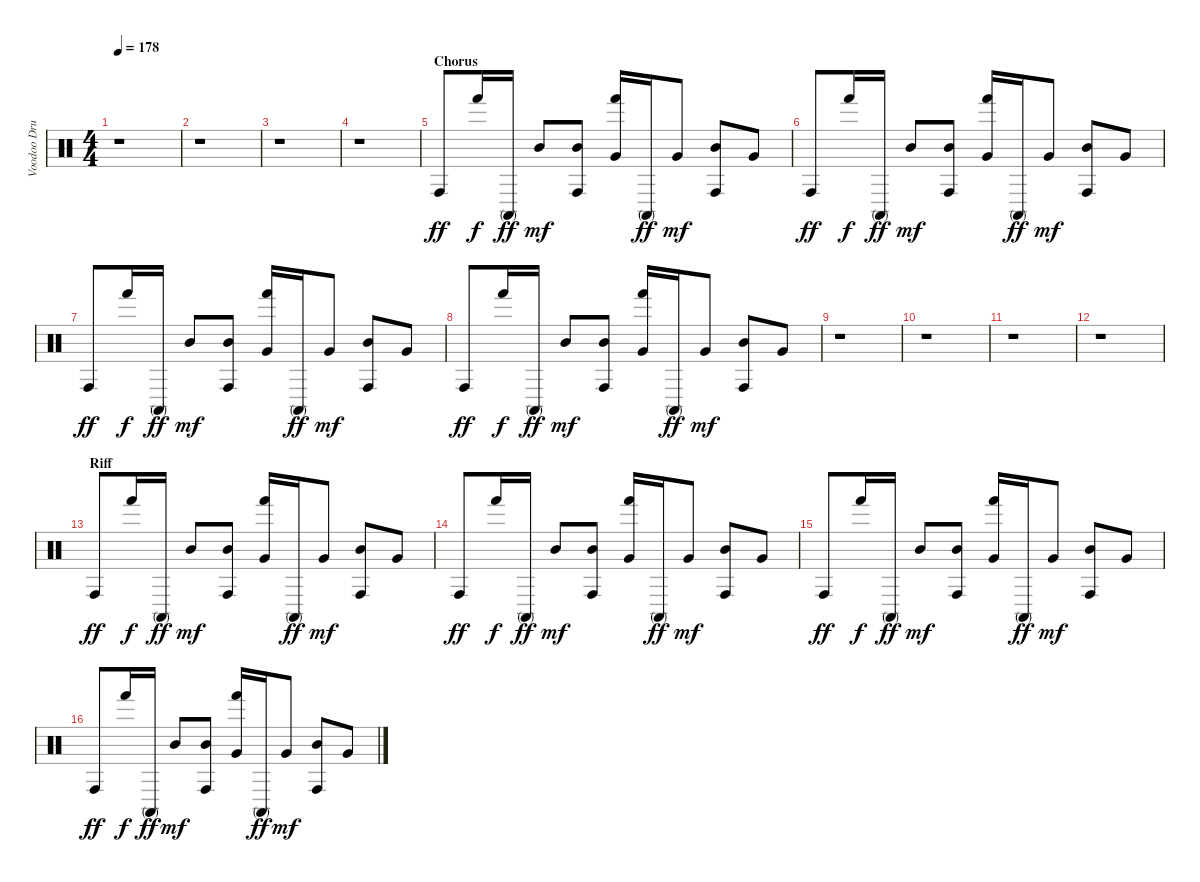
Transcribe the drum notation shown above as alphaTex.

\track ("Voodoo Drums" "Voodoo Dru") {instrument percussion}
\staff {score}
\articulation defaults
\ts (4 4)
\tempo 178
\clef neutral
\ks c
r.1{dy mf} |
r.1 |
r.1 |
r.1 |
\section ("" "Chorus")
"Conga high (hit)".8{dy ff} "Hand (hit)".16{dy f} "Conga high (mute)".16{dy ff} "Mid Tom (hit)".8{dy mf} ("Conga high (hit)" "Mid Tom (hit)").8 ("Hand (hit)" "Very Low Tom (hit)").16 "Conga high (mute)".16{dy ff} "Very Low Tom (hit)".8{dy mf} ("Conga high (hit)" "Mid Tom (hit)").8 "Very Low Tom (hit)".8 |
"Conga high (hit)".8{dy ff} "Hand (hit)".16{dy f} "Conga high (mute)".16{dy ff} "Mid Tom (hit)".8{dy mf} ("Conga high (hit)" "Mid Tom (hit)").8 ("Hand (hit)" "Very Low Tom (hit)").16 "Conga high (mute)".16{dy ff} "Very Low Tom (hit)".8{dy mf} ("Conga high (hit)" "Mid Tom (hit)").8 "Very Low Tom (hit)".8 |
"Conga high (hit)".8{dy ff} "Hand (hit)".16{dy f} "Conga high (mute)".16{dy ff} "Mid Tom (hit)".8{dy mf} ("Conga high (hit)" "Mid Tom (hit)").8 ("Hand (hit)" "Very Low Tom (hit)").16 "Conga high (mute)".16{dy ff} "Very Low Tom (hit)".8{dy mf} ("Conga high (hit)" "Mid Tom (hit)").8 "Very Low Tom (hit)".8 |
"Conga high (hit)".8{dy ff} "Hand (hit)".16{dy f} "Conga high (mute)".16{dy ff} "Mid Tom (hit)".8{dy mf} ("Conga high (hit)" "Mid Tom (hit)").8 ("Hand (hit)" "Very Low Tom (hit)").16 "Conga high (mute)".16{dy ff} "Very Low Tom (hit)".8{dy mf} ("Conga high (hit)" "Mid Tom (hit)").8 "Very Low Tom (hit)".8 |
r.1 |
r.1 |
r.1 |
r.1 |
\section ("" "Riff")
"Conga high (hit)".8{dy ff} "Hand (hit)".16{dy f} "Conga high (mute)".16{dy ff} "Mid Tom (hit)".8{dy mf} ("Conga high (hit)" "Mid Tom (hit)").8 ("Hand (hit)" "Very Low Tom (hit)").16 "Conga high (mute)".16{dy ff} "Very Low Tom (hit)".8{dy mf} ("Conga high (hit)" "Mid Tom (hit)").8 "Very Low Tom (hit)".8 |
"Conga high (hit)".8{dy ff} "Hand (hit)".16{dy f} "Conga high (mute)".16{dy ff} "Mid Tom (hit)".8{dy mf} ("Conga high (hit)" "Mid Tom (hit)").8 ("Hand (hit)" "Very Low Tom (hit)").16 "Conga high (mute)".16{dy ff} "Very Low Tom (hit)".8{dy mf} ("Conga high (hit)" "Mid Tom (hit)").8 "Very Low Tom (hit)".8 |
"Conga high (hit)".8{dy ff} "Hand (hit)".16{dy f} "Conga high (mute)".16{dy ff} "Mid Tom (hit)".8{dy mf} ("Conga high (hit)" "Mid Tom (hit)").8 ("Hand (hit)" "Very Low Tom (hit)").16 "Conga high (mute)".16{dy ff} "Very Low Tom (hit)".8{dy mf} ("Conga high (hit)" "Mid Tom (hit)").8 "Very Low Tom (hit)".8 |
"Conga high (hit)".8{dy ff} "Hand (hit)".16{dy f} "Conga high (mute)".16{dy ff} "Mid Tom (hit)".8{dy mf} ("Conga high (hit)" "Mid Tom (hit)").8 ("Hand (hit)" "Very Low Tom (hit)").16 "Conga high (mute)".16{dy ff} "Very Low Tom (hit)".8{dy mf} ("Conga high (hit)" "Mid Tom (hit)").8 "Very Low Tom (hit)".8
